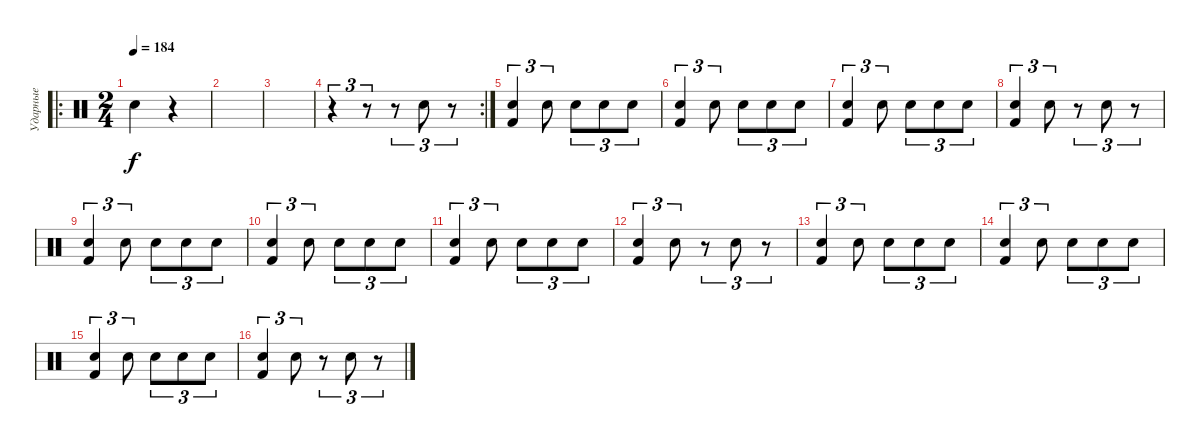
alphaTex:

\track ("Ударные" "Ударные") {instrument percussion}
\staff {score}
\articulation defaults
\ro
\ts (2 4)
\tempo 184
\clef neutral
\ks c "Snare (hit) 2".4{dy f}
r.4 |
|
|
\rc 2
r.4{tu (3 2)} r.8{tu (3 2)} r.8{tu (3 2)} "Snare (hit) 2".8{tu (3 2)} r.8{tu (3 2)} |
("Snare (hit) 2" "Kick (hit) 2").4{tu (3 2)} "Snare (hit) 2".8{tu (3 2)} "Snare (hit) 2".8{tu (3 2)} "Snare (hit) 2".8{tu (3 2)} "Snare (hit) 2".8{tu (3 2)} |
("Snare (hit) 2" "Kick (hit) 2").4{tu (3 2)} "Snare (hit) 2".8{tu (3 2)} "Snare (hit) 2".8{tu (3 2)} "Snare (hit) 2".8{tu (3 2)} "Snare (hit) 2".8{tu (3 2)} |
("Snare (hit) 2" "Kick (hit) 2").4{tu (3 2)} "Snare (hit) 2".8{tu (3 2)} "Snare (hit) 2".8{tu (3 2)} "Snare (hit) 2".8{tu (3 2)} "Snare (hit) 2".8{tu (3 2)} |
("Snare (hit) 2" "Kick (hit) 2").4{tu (3 2)} "Snare (hit) 2".8{tu (3 2)} r.8{tu (3 2)} "Snare (hit) 2".8{tu (3 2)} r.8{tu (3 2)} |
("Snare (hit) 2" "Kick (hit) 2").4{tu (3 2)} "Snare (hit) 2".8{tu (3 2)} "Snare (hit) 2".8{tu (3 2)} "Snare (hit) 2".8{tu (3 2)} "Snare (hit) 2".8{tu (3 2)} |
("Snare (hit) 2" "Kick (hit) 2").4{tu (3 2)} "Snare (hit) 2".8{tu (3 2)} "Snare (hit) 2".8{tu (3 2)} "Snare (hit) 2".8{tu (3 2)} "Snare (hit) 2".8{tu (3 2)} |
("Snare (hit) 2" "Kick (hit) 2").4{tu (3 2)} "Snare (hit) 2".8{tu (3 2)} "Snare (hit) 2".8{tu (3 2)} "Snare (hit) 2".8{tu (3 2)} "Snare (hit) 2".8{tu (3 2)} |
("Snare (hit) 2" "Kick (hit) 2").4{tu (3 2)} "Snare (hit) 2".8{tu (3 2)} r.8{tu (3 2)} "Snare (hit) 2".8{tu (3 2)} r.8{tu (3 2)} |
("Snare (hit) 2" "Kick (hit) 2").4{tu (3 2)} "Snare (hit) 2".8{tu (3 2)} "Snare (hit) 2".8{tu (3 2)} "Snare (hit) 2".8{tu (3 2)} "Snare (hit) 2".8{tu (3 2)} |
("Snare (hit) 2" "Kick (hit) 2").4{tu (3 2)} "Snare (hit) 2".8{tu (3 2)} "Snare (hit) 2".8{tu (3 2)} "Snare (hit) 2".8{tu (3 2)} "Snare (hit) 2".8{tu (3 2)} |
("Snare (hit) 2" "Kick (hit) 2").4{tu (3 2)} "Snare (hit) 2".8{tu (3 2)} "Snare (hit) 2".8{tu (3 2)} "Snare (hit) 2".8{tu (3 2)} "Snare (hit) 2".8{tu (3 2)} |
("Snare (hit) 2" "Kick (hit) 2").4{tu (3 2)} "Snare (hit) 2".8{tu (3 2)} r.8{tu (3 2)} "Snare (hit) 2".8{tu (3 2)} r.8{tu (3 2)}
